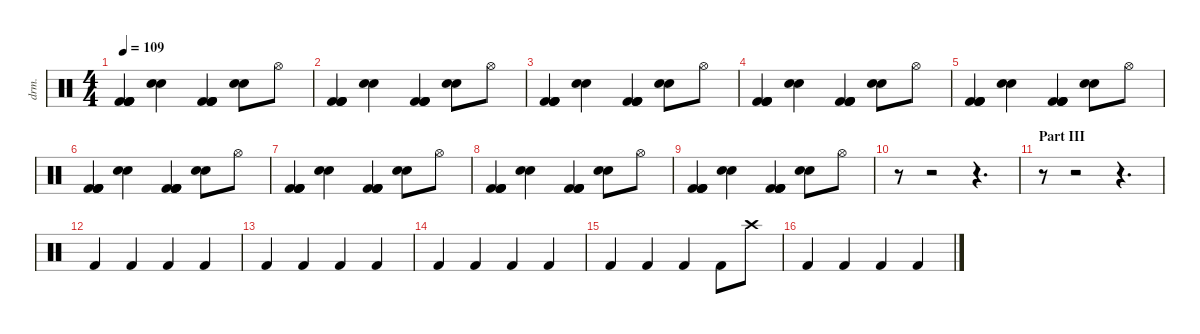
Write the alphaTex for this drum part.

\defaultSystemsLayout 4
\hideDynamics
\bracketExtendMode nobrackets
\otherSystemsTrackNameOrientation horizontal
\track ("Drums" "drm.") {instrument percussion}
\staff {score}
\articulation defaults
\ts (4 4)
\tempo 109
\clef neutral
\ks c
("Kick (hit) 2" "Kick (hit) 2" "Kick (hit) 2" "Kick (hit) 2").4{dy fff} ("Snare (hit) 2" "Snare (hit) 2").4{dy f} ("Kick (hit) 2" "Kick (hit) 2" "Kick (hit) 2" "Kick (hit) 2").4{dy fff} ("Snare (hit) 2" "Snare (hit) 2").8{dy f} "Hi-Hat (open)".8 |
("Kick (hit) 2" "Kick (hit) 2" "Kick (hit) 2" "Kick (hit) 2").4{dy fff} ("Snare (hit) 2" "Snare (hit) 2").4{dy f} ("Kick (hit) 2" "Kick (hit) 2" "Kick (hit) 2" "Kick (hit) 2").4{dy fff} ("Snare (hit) 2" "Snare (hit) 2").8{dy f} "Hi-Hat (open)".8 |
("Kick (hit) 2" "Kick (hit) 2" "Kick (hit) 2" "Kick (hit) 2").4{dy fff} ("Snare (hit) 2" "Snare (hit) 2").4{dy f} ("Kick (hit) 2" "Kick (hit) 2" "Kick (hit) 2" "Kick (hit) 2").4{dy fff} ("Snare (hit) 2" "Snare (hit) 2").8{dy f} "Hi-Hat (open)".8 |
("Kick (hit) 2" "Kick (hit) 2" "Kick (hit) 2" "Kick (hit) 2").4{dy fff} ("Snare (hit) 2" "Snare (hit) 2").4{dy f} ("Kick (hit) 2" "Kick (hit) 2" "Kick (hit) 2" "Kick (hit) 2").4{dy fff} ("Snare (hit) 2" "Snare (hit) 2").8{dy f} "Hi-Hat (open)".8 |
("Kick (hit) 2" "Kick (hit) 2" "Kick (hit) 2" "Kick (hit) 2").4{dy fff} ("Snare (hit) 2" "Snare (hit) 2").4{dy f} ("Kick (hit) 2" "Kick (hit) 2" "Kick (hit) 2" "Kick (hit) 2").4{dy fff} ("Snare (hit) 2" "Snare (hit) 2").8{dy f} "Hi-Hat (open)".8 |
("Kick (hit) 2" "Kick (hit) 2" "Kick (hit) 2" "Kick (hit) 2").4{dy fff} ("Snare (hit) 2" "Snare (hit) 2").4{dy f} ("Kick (hit) 2" "Kick (hit) 2" "Kick (hit) 2" "Kick (hit) 2").4{dy fff} ("Snare (hit) 2" "Snare (hit) 2").8{dy f} "Hi-Hat (open)".8 |
("Kick (hit) 2" "Kick (hit) 2" "Kick (hit) 2" "Kick (hit) 2").4{dy fff} ("Snare (hit) 2" "Snare (hit) 2").4{dy f} ("Kick (hit) 2" "Kick (hit) 2" "Kick (hit) 2" "Kick (hit) 2").4{dy fff} ("Snare (hit) 2" "Snare (hit) 2").8{dy f} "Hi-Hat (open)".8 |
("Kick (hit) 2" "Kick (hit) 2" "Kick (hit) 2" "Kick (hit) 2").4{dy fff} ("Snare (hit) 2" "Snare (hit) 2").4{dy f} ("Kick (hit) 2" "Kick (hit) 2" "Kick (hit) 2" "Kick (hit) 2").4{dy fff} ("Snare (hit) 2" "Snare (hit) 2").8{dy f} "Hi-Hat (open)".8 |
("Kick (hit) 2" "Kick (hit) 2" "Kick (hit) 2" "Kick (hit) 2").4{dy fff} ("Snare (hit) 2" "Snare (hit) 2").4{dy f} ("Kick (hit) 2" "Kick (hit) 2" "Kick (hit) 2" "Kick (hit) 2").4{dy fff} ("Snare (hit) 2" "Snare (hit) 2").8{dy f} "Hi-Hat (open)".8 |
r.8 r.2 r.4{d} |
\section ("" "Part III")
r.8 r.2 r.4{d} |
"Kick (hit) 2".4 "Kick (hit) 2".4 "Kick (hit) 2".4 "Kick (hit) 2".4 |
"Kick (hit) 2".4 "Kick (hit) 2".4 "Kick (hit) 2".4 "Kick (hit) 2".4 |
"Kick (hit) 2".4 "Kick (hit) 2".4 "Kick (hit) 2".4 "Kick (hit) 2".4 |
"Kick (hit) 2".4 "Kick (hit) 2".4 "Kick (hit) 2".4 "Kick (hit) 2".8 "Crash high (hit)".8 |
"Kick (hit) 2".4 "Kick (hit) 2".4 "Kick (hit) 2".4 "Kick (hit) 2".4
